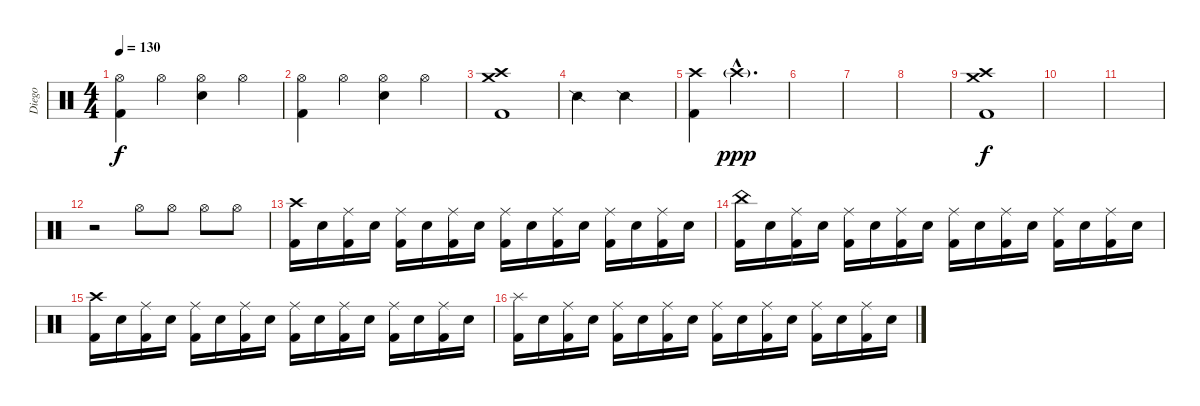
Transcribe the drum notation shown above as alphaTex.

\track ("Diego" "Diego") {instrument percussion}
\staff {score}
\articulation defaults
\ts (4 4)
\tempo 130
\clef neutral
\ks c
("Hi-Hat (open)" "Kick (hit) 2").4{dy f} "Hi-Hat (open)".4 ("Hi-Hat (open)" "Electric Snare (hit)").4 "Hi-Hat (open)".4 |
("Hi-Hat (open)" "Kick (hit) 2").4 "Hi-Hat (open)".4 ("Hi-Hat (open)" "Electric Snare (hit)").4 "Hi-Hat (open)".4 |
("Crash high (hit)" "Crash medium (hit)" "Kick (hit) 2").1 |
"Snare (side stick) 2".2 "Snare (side stick) 2".2 |
("Crash high (hit)" "Kick (hit) 2").4 "Crash high (hit)"{g hac}.2{d dy ppp} |
|
|
|
("Crash high (hit)" "Crash medium (hit)" "Kick (hit) 2").1{dy f} |
|
|
r.2 "Hi-Hat (open)".8 "Hi-Hat (open)".8 "Hi-Hat (open)".8 "Hi-Hat (open)".8 |
("Crash high (hit)" "Kick (hit) 2").16 "Electric Snare (hit)".16 ("Ride (middle)" "Kick (hit) 2").16 "Electric Snare (hit)".16 ("Ride (middle)" "Kick (hit) 2").16 "Electric Snare (hit)".16 ("Ride (middle)" "Kick (hit) 2").16 "Electric Snare (hit)".16 ("Ride (middle)" "Kick (hit) 2").16 "Electric Snare (hit)".16 ("Ride (middle)" "Kick (hit) 2").16 "Electric Snare (hit)".16 ("Ride (middle)" "Kick (hit) 2").16 "Electric Snare (hit)".16 ("Ride (middle)" "Kick (hit) 2").16 "Electric Snare (hit)".16 |
("China (hit)" "Kick (hit) 2").16 "Electric Snare (hit)".16 ("Ride (middle)" "Kick (hit) 2").16 "Electric Snare (hit)".16 ("Ride (middle)" "Kick (hit) 2").16 "Electric Snare (hit)".16 ("Ride (middle)" "Kick (hit) 2").16 "Electric Snare (hit)".16 ("Ride (middle)" "Kick (hit) 2").16 "Electric Snare (hit)".16 ("Ride (middle)" "Kick (hit) 2").16 "Electric Snare (hit)".16 ("Ride (middle)" "Kick (hit) 2").16 "Electric Snare (hit)".16 ("Ride (middle)" "Kick (hit) 2").16 "Electric Snare (hit)".16 |
("Crash high (hit)" "Kick (hit) 2").16 "Electric Snare (hit)".16 ("Ride (middle)" "Kick (hit) 2").16 "Electric Snare (hit)".16 ("Ride (middle)" "Kick (hit) 2").16 "Electric Snare (hit)".16 ("Ride (middle)" "Kick (hit) 2").16 "Electric Snare (hit)".16 ("Ride (middle)" "Kick (hit) 2").16 "Electric Snare (hit)".16 ("Ride (middle)" "Kick (hit) 2").16 "Electric Snare (hit)".16 ("Ride (middle)" "Kick (hit) 2").16 "Electric Snare (hit)".16 ("Ride (middle)" "Kick (hit) 2").16 "Electric Snare (hit)".16 |
("Splash (hit)" "Kick (hit) 2").16 "Electric Snare (hit)".16 ("Ride (middle)" "Kick (hit) 2").16 "Electric Snare (hit)".16 ("Ride (middle)" "Kick (hit) 2").16 "Electric Snare (hit)".16 ("Ride (middle)" "Kick (hit) 2").16 "Electric Snare (hit)".16 ("Ride (middle)" "Kick (hit) 2").16 "Electric Snare (hit)".16 ("Ride (middle)" "Kick (hit) 2").16 "Electric Snare (hit)".16 ("Ride (middle)" "Kick (hit) 2").16 "Electric Snare (hit)".16 ("Ride (middle)" "Kick (hit) 2").16 "Electric Snare (hit)".16
